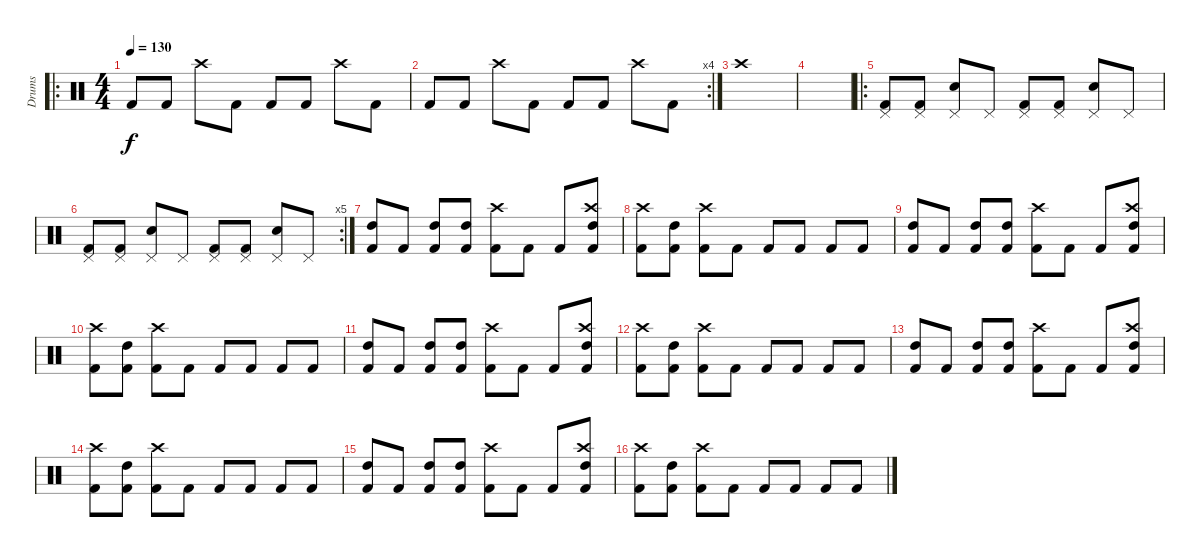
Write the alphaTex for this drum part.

\track ("Drums" "Drums") {instrument percussion}
\staff {score}
\articulation defaults
\ro
\ts (4 4)
\tempo 130
\clef neutral
\ks c "Kick (hit) 2".8{dy f} "Kick (hit) 2".8 "Crash high (hit)".8 "Kick (hit) 2".8 "Kick (hit) 2".8 "Kick (hit) 2".8 "Crash high (hit)".8 "Kick (hit) 2".8
|
\rc 4 "Kick (hit) 2".8 "Kick (hit) 2".8 "Crash high (hit)".8 "Kick (hit) 2".8 "Kick (hit) 2".8 "Kick (hit) 2".8 "Crash high (hit)".8 "Kick (hit) 2".8
|
"Crash high (hit)".1 |
|
\ro
("Pedal Hi-Hat (hit)" "Kick (hit) 2").8 ("Pedal Hi-Hat (hit)" "Kick (hit) 2").8 ("Pedal Hi-Hat (hit)" "Snare (hit) 2").8 "Pedal Hi-Hat (hit)".8 ("Pedal Hi-Hat (hit)" "Kick (hit) 2").8 ("Pedal Hi-Hat (hit)" "Kick (hit) 2").8 ("Pedal Hi-Hat (hit)" "Snare (hit) 2").8 "Pedal Hi-Hat (hit)".8 |
\rc 5
("Pedal Hi-Hat (hit)" "Kick (hit) 2").8 ("Pedal Hi-Hat (hit)" "Kick (hit) 2").8 ("Pedal Hi-Hat (hit)" "Snare (hit) 2").8 "Pedal Hi-Hat (hit)".8 ("Pedal Hi-Hat (hit)" "Kick (hit) 2").8 ("Pedal Hi-Hat (hit)" "Kick (hit) 2").8 ("Pedal Hi-Hat (hit)" "Snare (hit) 2").8 "Pedal Hi-Hat (hit)".8 |
("Kick (hit) 2" "High Tom (hit)").8 "Kick (hit) 2".8 ("Kick (hit) 2" "High Tom (hit)").8 ("Kick (hit) 2" "High Tom (hit)").8 ("Kick (hit) 2" "Crash high (hit)").8 "Kick (hit) 2".8 "Kick (hit) 2".8 ("Kick (hit) 2" "Crash high (hit)" "High Tom (hit)").8 |
("Kick (hit) 2" "Crash high (hit)").8 ("Kick (hit) 2" "High Tom (hit)").8 ("Kick (hit) 2" "Crash high (hit)").8 "Kick (hit) 2".8 "Kick (hit) 2".8 "Kick (hit) 2".8 "Kick (hit) 2".8 "Kick (hit) 2".8 |
("Kick (hit) 2" "High Tom (hit)").8 "Kick (hit) 2".8 ("Kick (hit) 2" "High Tom (hit)").8 ("Kick (hit) 2" "High Tom (hit)").8 ("Kick (hit) 2" "Crash high (hit)").8 "Kick (hit) 2".8 "Kick (hit) 2".8 ("Kick (hit) 2" "Crash high (hit)" "High Tom (hit)").8 |
("Kick (hit) 2" "Crash high (hit)").8 ("Kick (hit) 2" "High Tom (hit)").8 ("Kick (hit) 2" "Crash high (hit)").8 "Kick (hit) 2".8 "Kick (hit) 2".8 "Kick (hit) 2".8 "Kick (hit) 2".8 "Kick (hit) 2".8 |
("Kick (hit) 2" "High Tom (hit)").8 "Kick (hit) 2".8 ("Kick (hit) 2" "High Tom (hit)").8 ("Kick (hit) 2" "High Tom (hit)").8 ("Kick (hit) 2" "Crash high (hit)").8 "Kick (hit) 2".8 "Kick (hit) 2".8 ("Kick (hit) 2" "Crash high (hit)" "High Tom (hit)").8 |
("Kick (hit) 2" "Crash high (hit)").8 ("Kick (hit) 2" "High Tom (hit)").8 ("Kick (hit) 2" "Crash high (hit)").8 "Kick (hit) 2".8 "Kick (hit) 2".8 "Kick (hit) 2".8 "Kick (hit) 2".8 "Kick (hit) 2".8 |
("Kick (hit) 2" "High Tom (hit)").8 "Kick (hit) 2".8 ("Kick (hit) 2" "High Tom (hit)").8 ("Kick (hit) 2" "High Tom (hit)").8 ("Kick (hit) 2" "Crash high (hit)").8 "Kick (hit) 2".8 "Kick (hit) 2".8 ("Kick (hit) 2" "Crash high (hit)" "High Tom (hit)").8 |
("Kick (hit) 2" "Crash high (hit)").8 ("Kick (hit) 2" "High Tom (hit)").8 ("Kick (hit) 2" "Crash high (hit)").8 "Kick (hit) 2".8 "Kick (hit) 2".8 "Kick (hit) 2".8 "Kick (hit) 2".8 "Kick (hit) 2".8 |
("Kick (hit) 2" "High Tom (hit)").8 "Kick (hit) 2".8 ("Kick (hit) 2" "High Tom (hit)").8 ("Kick (hit) 2" "High Tom (hit)").8 ("Kick (hit) 2" "Crash high (hit)").8 "Kick (hit) 2".8 "Kick (hit) 2".8 ("Kick (hit) 2" "Crash high (hit)" "High Tom (hit)").8 |
("Kick (hit) 2" "Crash high (hit)").8 ("Kick (hit) 2" "High Tom (hit)").8 ("Kick (hit) 2" "Crash high (hit)").8 "Kick (hit) 2".8 "Kick (hit) 2".8 "Kick (hit) 2".8 "Kick (hit) 2".8 "Kick (hit) 2".8
